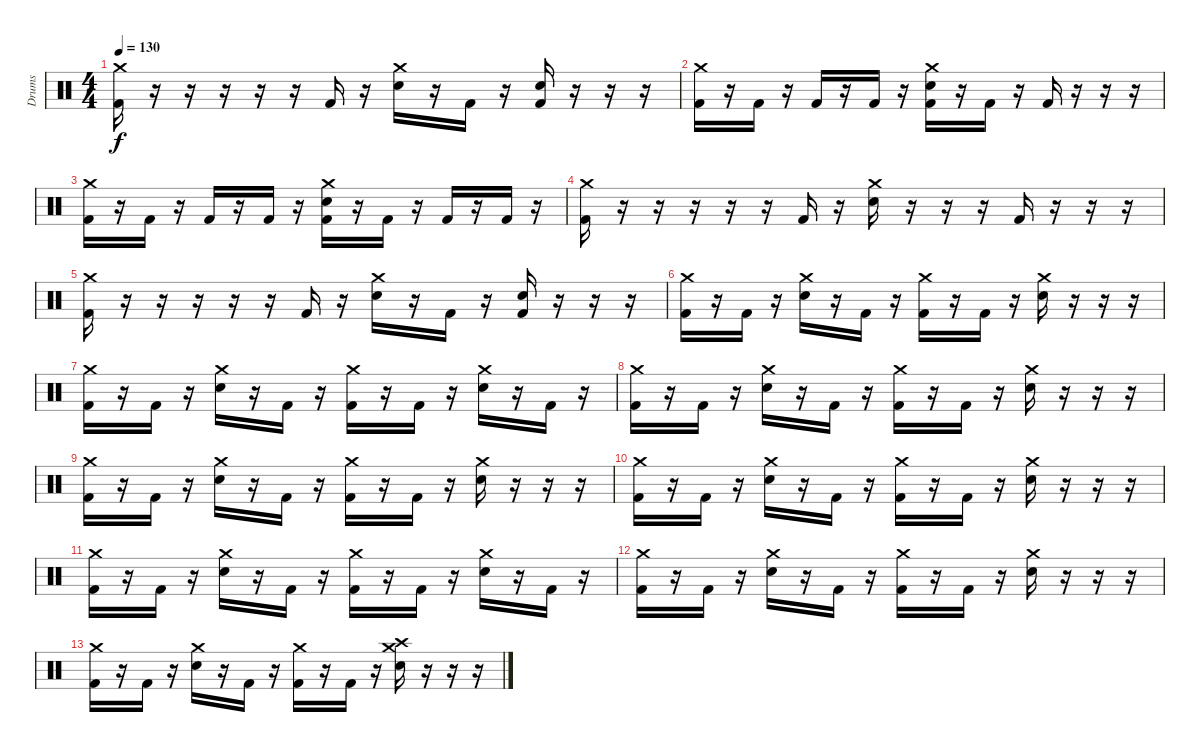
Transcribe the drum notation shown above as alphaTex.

\track ("Drums" "Drums") {instrument percussion}
\staff {score}
\articulation defaults
\ts (4 4)
\tempo 130
\clef neutral
\ks c
("Crash medium (hit)" "Kick (hit) 2").16{dy f} r.16 r.16 r.16 r.16 r.16 "Kick (hit) 2".16 r.16 ("Crash medium (hit)" "Electric Snare (hit)").16 r.16 "Kick (hit) 2".16 r.16 ("Electric Snare (hit)" "Kick (hit) 2").16 r.16 r.16 r.16 |
("Crash medium (hit)" "Kick (hit) 2").16 r.16 "Kick (hit) 2".16 r.16 "Kick (hit) 2".16 r.16 "Kick (hit) 2".16 r.16 ("Crash medium (hit)" "Electric Snare (hit)" "Kick (hit) 2").16 r.16 "Kick (hit) 2".16 r.16 "Kick (hit) 2".16 r.16 r.16 r.16 |
("Crash medium (hit)" "Kick (hit) 2").16 r.16 "Kick (hit) 2".16 r.16 "Kick (hit) 2".16 r.16 "Kick (hit) 2".16 r.16 ("Crash medium (hit)" "Electric Snare (hit)" "Kick (hit) 2").16 r.16 "Kick (hit) 2".16 r.16 "Kick (hit) 2".16 r.16 "Kick (hit) 2".16 r.16 |
("Crash medium (hit)" "Kick (hit) 2").16 r.16 r.16 r.16 r.16 r.16 "Kick (hit) 2".16 r.16 ("Crash medium (hit)" "Electric Snare (hit)").16 r.16 r.16 r.16 "Kick (hit) 2".16 r.16 r.16 r.16 |
("Crash medium (hit)" "Kick (hit) 2").16 r.16 r.16 r.16 r.16 r.16 "Kick (hit) 2".16 r.16 ("Crash medium (hit)" "Electric Snare (hit)").16 r.16 "Kick (hit) 2".16 r.16 ("Electric Snare (hit)" "Kick (hit) 2").16 r.16 r.16 r.16 |
("Crash medium (hit)" "Kick (hit) 2").16 r.16 "Kick (hit) 2".16 r.16 ("Crash medium (hit)" "Electric Snare (hit)").16 r.16 "Kick (hit) 2".16 r.16 ("Crash medium (hit)" "Kick (hit) 2").16 r.16 "Kick (hit) 2".16 r.16 ("Crash medium (hit)" "Electric Snare (hit)").16 r.16 r.16 r.16 |
("Crash medium (hit)" "Kick (hit) 2").16 r.16 "Kick (hit) 2".16 r.16 ("Crash medium (hit)" "Electric Snare (hit)").16 r.16 "Kick (hit) 2".16 r.16 ("Crash medium (hit)" "Kick (hit) 2").16 r.16 "Kick (hit) 2".16 r.16 ("Crash medium (hit)" "Electric Snare (hit)").16 r.16 "Kick (hit) 2".16 r.16 |
("Crash medium (hit)" "Kick (hit) 2").16 r.16 "Kick (hit) 2".16 r.16 ("Crash medium (hit)" "Electric Snare (hit)").16 r.16 "Kick (hit) 2".16 r.16 ("Crash medium (hit)" "Kick (hit) 2").16 r.16 "Kick (hit) 2".16 r.16 ("Crash medium (hit)" "Electric Snare (hit)").16 r.16 r.16 r.16 |
("Crash medium (hit)" "Kick (hit) 2").16 r.16 "Kick (hit) 2".16 r.16 ("Crash medium (hit)" "Electric Snare (hit)").16 r.16 "Kick (hit) 2".16 r.16 ("Crash medium (hit)" "Kick (hit) 2").16 r.16 "Kick (hit) 2".16 r.16 ("Crash medium (hit)" "Electric Snare (hit)").16 r.16 r.16 r.16 |
("Crash medium (hit)" "Kick (hit) 2").16 r.16 "Kick (hit) 2".16 r.16 ("Crash medium (hit)" "Electric Snare (hit)").16 r.16 "Kick (hit) 2".16 r.16 ("Crash medium (hit)" "Kick (hit) 2").16 r.16 "Kick (hit) 2".16 r.16 ("Crash medium (hit)" "Electric Snare (hit)").16 r.16 r.16 r.16 |
("Crash medium (hit)" "Kick (hit) 2").16 r.16 "Kick (hit) 2".16 r.16 ("Crash medium (hit)" "Electric Snare (hit)").16 r.16 "Kick (hit) 2".16 r.16 ("Crash medium (hit)" "Kick (hit) 2").16 r.16 "Kick (hit) 2".16 r.16 ("Crash medium (hit)" "Electric Snare (hit)").16 r.16 "Kick (hit) 2".16 r.16 |
("Crash medium (hit)" "Kick (hit) 2").16 r.16 "Kick (hit) 2".16 r.16 ("Crash medium (hit)" "Electric Snare (hit)").16 r.16 "Kick (hit) 2".16 r.16 ("Crash medium (hit)" "Kick (hit) 2").16 r.16 "Kick (hit) 2".16 r.16 ("Crash medium (hit)" "Electric Snare (hit)").16 r.16 r.16 r.16 |
("Crash medium (hit)" "Kick (hit) 2").16 r.16 "Kick (hit) 2".16 r.16 ("Crash medium (hit)" "Electric Snare (hit)").16 r.16 "Kick (hit) 2".16 r.16 ("Crash medium (hit)" "Kick (hit) 2").16 r.16 "Kick (hit) 2".16 r.16 ("Crash high (hit)" "Crash medium (hit)" "Electric Snare (hit)").16 r.16 r.16 r.16
